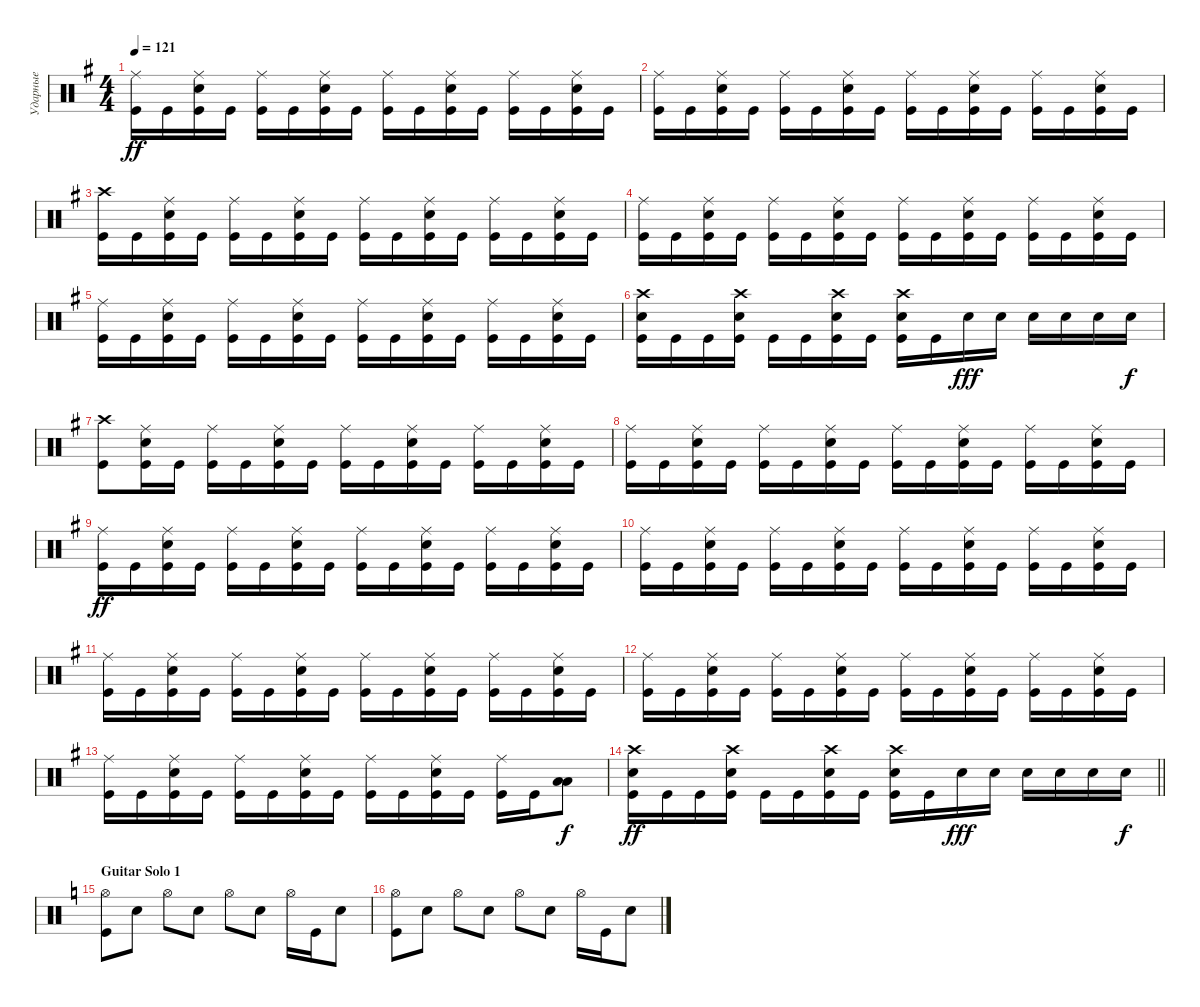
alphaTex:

\track ("Ударные" "Ударные") {instrument percussion}
\staff {score}
\articulation defaults
\ts (4 4)
\tempo 121
\clef neutral
\ks eminor
("Kick (hit)" "Ride (middle)").16{dy ff} "Kick (hit)".16 ("Kick (hit)" "Snare (hit) 2" "Ride (middle)").16 "Kick (hit)".16 ("Kick (hit)" "Ride (middle)").16 "Kick (hit)".16 ("Kick (hit)" "Snare (hit) 2" "Ride (middle)").16 "Kick (hit)".16 ("Kick (hit)" "Ride (middle)").16 "Kick (hit)".16 ("Kick (hit)" "Snare (hit) 2" "Ride (middle)").16 "Kick (hit)".16 ("Kick (hit)" "Ride (middle)").16 "Kick (hit)".16 ("Kick (hit)" "Snare (hit) 2" "Ride (middle)").16 "Kick (hit)".16 |
("Kick (hit)" "Ride (middle)").16 "Kick (hit)".16 ("Kick (hit)" "Snare (hit) 2" "Ride (middle)").16 "Kick (hit)".16 ("Kick (hit)" "Ride (middle)").16 "Kick (hit)".16 ("Kick (hit)" "Snare (hit) 2" "Ride (middle)").16 "Kick (hit)".16 ("Kick (hit)" "Ride (middle)").16 "Kick (hit)".16 ("Kick (hit)" "Snare (hit) 2" "Ride (middle)").16 "Kick (hit)".16 ("Kick (hit)" "Ride (middle)").16 "Kick (hit)".16 ("Kick (hit)" "Snare (hit) 2" "Ride (middle)").16 "Kick (hit)".16 |
("Kick (hit)" "Crash high (hit)").16 "Kick (hit)".16 ("Kick (hit)" "Snare (hit) 2" "Ride (middle)").16 "Kick (hit)".16 ("Kick (hit)" "Ride (middle)").16 "Kick (hit)".16 ("Kick (hit)" "Snare (hit) 2" "Ride (middle)").16 "Kick (hit)".16 ("Kick (hit)" "Ride (middle)").16 "Kick (hit)".16 ("Kick (hit)" "Snare (hit) 2" "Ride (middle)").16 "Kick (hit)".16 ("Kick (hit)" "Ride (middle)").16 "Kick (hit)".16 ("Kick (hit)" "Snare (hit) 2" "Ride (middle)").16 "Kick (hit)".16 |
("Kick (hit)" "Ride (middle)").16 "Kick (hit)".16 ("Kick (hit)" "Snare (hit) 2" "Ride (middle)").16 "Kick (hit)".16 ("Kick (hit)" "Ride (middle)").16 "Kick (hit)".16 ("Kick (hit)" "Snare (hit) 2" "Ride (middle)").16 "Kick (hit)".16 ("Kick (hit)" "Ride (middle)").16 "Kick (hit)".16 ("Kick (hit)" "Snare (hit) 2" "Ride (middle)").16 "Kick (hit)".16 ("Kick (hit)" "Ride (middle)").16 "Kick (hit)".16 ("Kick (hit)" "Snare (hit) 2" "Ride (middle)").16 "Kick (hit)".16 |
("Kick (hit)" "Ride (middle)").16 "Kick (hit)".16 ("Kick (hit)" "Snare (hit) 2" "Ride (middle)").16 "Kick (hit)".16 ("Kick (hit)" "Ride (middle)").16 "Kick (hit)".16 ("Kick (hit)" "Snare (hit) 2" "Ride (middle)").16 "Kick (hit)".16 ("Kick (hit)" "Ride (middle)").16 "Kick (hit)".16 ("Kick (hit)" "Snare (hit) 2" "Ride (middle)").16 "Kick (hit)".16 ("Kick (hit)" "Ride (middle)").16 "Kick (hit)".16 ("Kick (hit)" "Snare (hit) 2" "Ride (middle)").16 "Kick (hit)".16 |
("Snare (hit) 2" "Crash high (hit)" "Kick (hit)").16 "Kick (hit)".16 "Kick (hit)".16 ("Snare (hit) 2" "Crash high (hit)" "Kick (hit)").16 "Kick (hit)".16 "Kick (hit)".16 ("Snare (hit) 2" "Kick (hit)" "Crash high (hit)").16 "Kick (hit)".16 ("Snare (hit) 2" "Crash high (hit)" "Kick (hit)").16 "Kick (hit)".16 "Snare (hit) 2".16{dy fff} "Snare (hit) 2".16 "Snare (hit) 2".16 "Snare (hit) 2".16 "Snare (hit) 2".16 "Snare (hit) 2".16{dy f} |
("Kick (hit)" "Crash high (hit)").8 ("Kick (hit)" "Snare (hit) 2" "Ride (middle)").16 "Kick (hit)".16 ("Kick (hit)" "Ride (middle)").16 "Kick (hit)".16 ("Kick (hit)" "Snare (hit) 2" "Ride (middle)").16 "Kick (hit)".16 ("Kick (hit)" "Ride (middle)").16 "Kick (hit)".16 ("Kick (hit)" "Snare (hit) 2" "Ride (middle)").16 "Kick (hit)".16 ("Kick (hit)" "Ride (middle)").16 "Kick (hit)".16 ("Kick (hit)" "Snare (hit) 2" "Ride (middle)").16 "Kick (hit)".16 |
("Kick (hit)" "Ride (middle)").16 "Kick (hit)".16 ("Kick (hit)" "Snare (hit) 2" "Ride (middle)").16 "Kick (hit)".16 ("Kick (hit)" "Ride (middle)").16 "Kick (hit)".16 ("Kick (hit)" "Snare (hit) 2" "Ride (middle)").16 "Kick (hit)".16 ("Kick (hit)" "Ride (middle)").16 "Kick (hit)".16 ("Kick (hit)" "Snare (hit) 2" "Ride (middle)").16 "Kick (hit)".16 ("Kick (hit)" "Ride (middle)").16 "Kick (hit)".16 ("Kick (hit)" "Snare (hit) 2" "Ride (middle)").16 "Kick (hit)".16 |
("Kick (hit)" "Ride (middle)").16{dy ff} "Kick (hit)".16 ("Kick (hit)" "Snare (hit) 2" "Ride (middle)").16 "Kick (hit)".16 ("Kick (hit)" "Ride (middle)").16 "Kick (hit)".16 ("Kick (hit)" "Snare (hit) 2" "Ride (middle)").16 "Kick (hit)".16 ("Kick (hit)" "Ride (middle)").16 "Kick (hit)".16 ("Kick (hit)" "Snare (hit) 2" "Ride (middle)").16 "Kick (hit)".16 ("Kick (hit)" "Ride (middle)").16 "Kick (hit)".16 ("Kick (hit)" "Snare (hit) 2" "Ride (middle)").16 "Kick (hit)".16 |
("Kick (hit)" "Ride (middle)").16 "Kick (hit)".16 ("Kick (hit)" "Snare (hit) 2" "Ride (middle)").16 "Kick (hit)".16 ("Kick (hit)" "Ride (middle)").16 "Kick (hit)".16 ("Kick (hit)" "Snare (hit) 2" "Ride (middle)").16 "Kick (hit)".16 ("Kick (hit)" "Ride (middle)").16 "Kick (hit)".16 ("Kick (hit)" "Snare (hit) 2" "Ride (middle)").16 "Kick (hit)".16 ("Kick (hit)" "Ride (middle)").16 "Kick (hit)".16 ("Kick (hit)" "Snare (hit) 2" "Ride (middle)").16 "Kick (hit)".16 |
("Kick (hit)" "Ride (middle)").16 "Kick (hit)".16 ("Kick (hit)" "Snare (hit) 2" "Ride (middle)").16 "Kick (hit)".16 ("Kick (hit)" "Ride (middle)").16 "Kick (hit)".16 ("Kick (hit)" "Snare (hit) 2" "Ride (middle)").16 "Kick (hit)".16 ("Kick (hit)" "Ride (middle)").16 "Kick (hit)".16 ("Kick (hit)" "Snare (hit) 2" "Ride (middle)").16 "Kick (hit)".16 ("Kick (hit)" "Ride (middle)").16 "Kick (hit)".16 ("Kick (hit)" "Snare (hit) 2" "Ride (middle)").16 "Kick (hit)".16 |
("Kick (hit)" "Ride (middle)").16 "Kick (hit)".16 ("Kick (hit)" "Snare (hit) 2" "Ride (middle)").16 "Kick (hit)".16 ("Kick (hit)" "Ride (middle)").16 "Kick (hit)".16 ("Kick (hit)" "Snare (hit) 2" "Ride (middle)").16 "Kick (hit)".16 ("Kick (hit)" "Ride (middle)").16 "Kick (hit)".16 ("Kick (hit)" "Snare (hit) 2" "Ride (middle)").16 "Kick (hit)".16 ("Kick (hit)" "Ride (middle)").16 "Kick (hit)".16 ("Kick (hit)" "Snare (hit) 2" "Ride (middle)").16 "Kick (hit)".16 |
("Kick (hit)" "Ride (middle)").16 "Kick (hit)".16 ("Kick (hit)" "Snare (hit) 2" "Ride (middle)").16 "Kick (hit)".16 ("Kick (hit)" "Ride (middle)").16 "Kick (hit)".16 ("Kick (hit)" "Snare (hit) 2" "Ride (middle)").16 "Kick (hit)".16 ("Kick (hit)" "Ride (middle)").16 "Kick (hit)".16 ("Kick (hit)" "Snare (hit) 2" "Ride (middle)").16 "Kick (hit)".16 ("Kick (hit)" "Ride (middle)").16 "Kick (hit)".16 ("Low Tom (hit)" "Low Tom (hit)").8{bd 240 dy f} |
\barLineRight lightlight
("Snare (hit) 2" "Crash high (hit)" "Kick (hit)").16{dy ff} "Kick (hit)".16 "Kick (hit)".16 ("Snare (hit) 2" "Crash high (hit)" "Kick (hit)").16 "Kick (hit)".16 "Kick (hit)".16 ("Snare (hit) 2" "Kick (hit)" "Crash high (hit)").16 "Kick (hit)".16 ("Snare (hit) 2" "Crash high (hit)" "Kick (hit)").16 "Kick (hit)".16 "Snare (hit) 2".16{dy fff} "Snare (hit) 2".16 "Snare (hit) 2".16 "Snare (hit) 2".16 "Snare (hit) 2".16 "Snare (hit) 2".16{dy f} |
\section ("" "Guitar Solo 1")
\ks aminor
("Kick (hit)" "Hi-Hat (open)").8 "Snare (hit) 2".8 "Hi-Hat (open)".8 "Snare (hit) 2".8 "Hi-Hat (open)".8 "Snare (hit) 2".8 "Hi-Hat (open)".16 "Kick (hit)".16 "Snare (hit) 2".8 |
("Kick (hit)" "Hi-Hat (open)").8 "Snare (hit) 2".8 "Hi-Hat (open)".8 "Snare (hit) 2".8 "Hi-Hat (open)".8 "Snare (hit) 2".8 "Hi-Hat (open)".16 "Kick (hit)".16 "Snare (hit) 2".8
